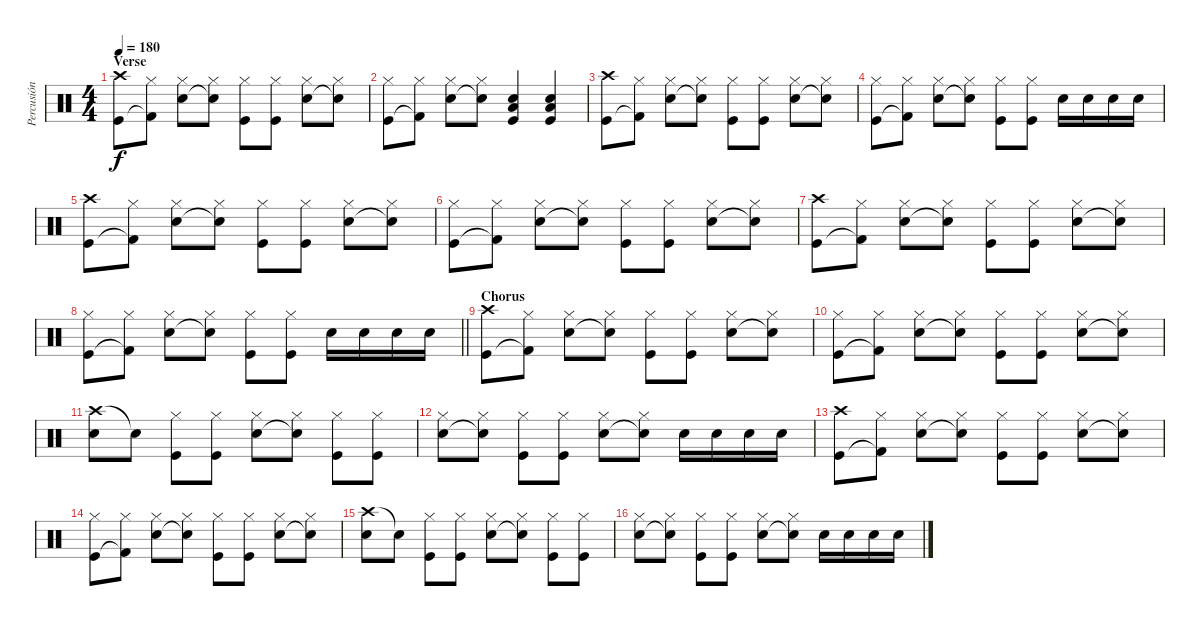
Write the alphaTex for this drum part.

\track ("Percusión" "Percusión") {instrument percussion}
\staff {score}
\articulation defaults
\ts (4 4)
\section ("" "Verse")
\tempo 180
\clef neutral
\ks c
("Crash high (hit)" "Kick (hit)").8{dy f} ("Hi-Hat (closed)" "Kick (hit) 2"{t}).8 ("Hi-Hat (closed)" "Snare (hit) 2").8 ("Hi-Hat (closed)" "Snare (hit)"{t}).8 ("Hi-Hat (closed)" "Kick (hit)").8 ("Hi-Hat (closed)" "Kick (hit)").8 ("Hi-Hat (closed)" "Snare (hit) 2").8 ("Hi-Hat (closed)" "Snare (hit)"{t}).8 |
("Hi-Hat (closed)" "Kick (hit)").8 ("Hi-Hat (closed)" "Kick (hit) 2"{t}).8 ("Hi-Hat (closed)" "Snare (hit) 2").8 ("Hi-Hat (closed)" "Snare (hit)"{t}).8 ("Low Floor Tom (hit)" "Snare (hit) 2" "Kick (hit)").4 ("Low Floor Tom (hit)" "Snare (hit) 2" "Kick (hit)").4 |
("Crash high (hit)" "Kick (hit)").8 ("Hi-Hat (closed)" "Kick (hit) 2"{t}).8 ("Hi-Hat (closed)" "Snare (hit) 2").8 ("Hi-Hat (closed)" "Snare (hit)"{t}).8 ("Hi-Hat (closed)" "Kick (hit)").8 ("Hi-Hat (closed)" "Kick (hit)").8 ("Hi-Hat (closed)" "Snare (hit) 2").8 ("Hi-Hat (closed)" "Snare (hit)"{t}).8 |
("Hi-Hat (closed)" "Kick (hit)").8 ("Hi-Hat (closed)" "Kick (hit) 2"{t}).8 ("Hi-Hat (closed)" "Snare (hit) 2").8 ("Hi-Hat (closed)" "Snare (hit)"{t}).8 ("Hi-Hat (closed)" "Kick (hit)").8 ("Hi-Hat (closed)" "Kick (hit)").8 "Snare (hit) 2".16 "Snare (hit) 2".16 "Snare (hit) 2".16 "Snare (hit) 2".16 |
("Crash high (hit)" "Kick (hit)").8 ("Hi-Hat (closed)" "Kick (hit) 2"{t}).8 ("Hi-Hat (closed)" "Snare (hit) 2").8 ("Hi-Hat (closed)" "Snare (hit)"{t}).8 ("Hi-Hat (closed)" "Kick (hit)").8 ("Hi-Hat (closed)" "Kick (hit)").8 ("Hi-Hat (closed)" "Snare (hit) 2").8 ("Hi-Hat (closed)" "Snare (hit)"{t}).8 |
("Hi-Hat (closed)" "Kick (hit)").8 ("Hi-Hat (closed)" "Kick (hit) 2"{t}).8 ("Hi-Hat (closed)" "Snare (hit) 2").8 ("Hi-Hat (closed)" "Snare (hit)"{t}).8 ("Hi-Hat (closed)" "Kick (hit)").8 ("Hi-Hat (closed)" "Kick (hit)").8 ("Hi-Hat (closed)" "Snare (hit) 2").8 ("Hi-Hat (closed)" "Snare (hit)"{t}).8 |
("Crash high (hit)" "Kick (hit)").8 ("Hi-Hat (closed)" "Kick (hit) 2"{t}).8 ("Hi-Hat (closed)" "Snare (hit) 2").8 ("Hi-Hat (closed)" "Snare (hit)"{t}).8 ("Hi-Hat (closed)" "Kick (hit)").8 ("Hi-Hat (closed)" "Kick (hit)").8 ("Hi-Hat (closed)" "Snare (hit) 2").8 ("Hi-Hat (closed)" "Snare (hit)"{t}).8 |
\barLineRight lightlight
("Hi-Hat (closed)" "Kick (hit)").8 ("Hi-Hat (closed)" "Kick (hit) 2"{t}).8 ("Hi-Hat (closed)" "Snare (hit) 2").8 ("Hi-Hat (closed)" "Snare (hit)"{t}).8 ("Hi-Hat (closed)" "Kick (hit)").8 ("Hi-Hat (closed)" "Kick (hit)").8 "Snare (hit) 2".16 "Snare (hit) 2".16 "Snare (hit) 2".16 "Snare (hit) 2".16 |
\section ("" "Chorus")
("Crash high (hit)" "Kick (hit)").8 ("Hi-Hat (closed)" "Kick (hit) 2"{t}).8 ("Hi-Hat (closed)" "Snare (hit) 2").8 ("Hi-Hat (closed)" "Snare (hit)"{t}).8 ("Hi-Hat (closed)" "Kick (hit)").8 ("Hi-Hat (closed)" "Kick (hit)").8 ("Hi-Hat (closed)" "Snare (hit) 2").8 ("Hi-Hat (closed)" "Snare (hit)"{t}).8 |
("Hi-Hat (closed)" "Kick (hit)").8 ("Hi-Hat (closed)" "Kick (hit) 2"{t}).8 ("Hi-Hat (closed)" "Snare (hit) 2").8 ("Hi-Hat (closed)" "Snare (hit)"{t}).8 ("Hi-Hat (closed)" "Kick (hit)").8 ("Hi-Hat (closed)" "Kick (hit)").8 ("Hi-Hat (closed)" "Snare (hit) 2").8 ("Hi-Hat (closed)" "Snare (hit)"{t}).8 |
("Crash high (hit)" "Snare (hit) 2").8 "Snare (hit)"{t}.8 ("Hi-Hat (closed)" "Kick (hit)").8 ("Hi-Hat (closed)" "Kick (hit)").8 ("Hi-Hat (closed)" "Snare (hit) 2").8 ("Hi-Hat (closed)" "Snare (hit)"{t}).8 ("Hi-Hat (closed)" "Kick (hit)").8 ("Hi-Hat (closed)" "Kick (hit)").8 |
("Hi-Hat (closed)" "Snare (hit) 2").8 ("Hi-Hat (closed)" "Snare (hit)"{t}).8 ("Hi-Hat (closed)" "Kick (hit)").8 ("Hi-Hat (closed)" "Kick (hit)").8 ("Hi-Hat (closed)" "Snare (hit) 2").8 ("Hi-Hat (closed)" "Snare (hit) 2"{t}).8 "Snare (hit) 2".16 "Snare (hit) 2".16 "Snare (hit) 2".16 "Snare (hit) 2".16 |
("Crash high (hit)" "Kick (hit)").8 ("Hi-Hat (closed)" "Kick (hit) 2"{t}).8 ("Hi-Hat (closed)" "Snare (hit) 2").8 ("Hi-Hat (closed)" "Snare (hit)"{t}).8 ("Hi-Hat (closed)" "Kick (hit)").8 ("Hi-Hat (closed)" "Kick (hit)").8 ("Hi-Hat (closed)" "Snare (hit) 2").8 ("Hi-Hat (closed)" "Snare (hit)"{t}).8 |
("Hi-Hat (closed)" "Kick (hit)").8 ("Hi-Hat (closed)" "Kick (hit) 2"{t}).8 ("Hi-Hat (closed)" "Snare (hit) 2").8 ("Hi-Hat (closed)" "Snare (hit)"{t}).8 ("Hi-Hat (closed)" "Kick (hit)").8 ("Hi-Hat (closed)" "Kick (hit)").8 ("Hi-Hat (closed)" "Snare (hit) 2").8 ("Hi-Hat (closed)" "Snare (hit)"{t}).8 |
("Crash high (hit)" "Snare (hit) 2").8 "Snare (hit)"{t}.8 ("Hi-Hat (closed)" "Kick (hit)").8 ("Hi-Hat (closed)" "Kick (hit)").8 ("Hi-Hat (closed)" "Snare (hit) 2").8 ("Hi-Hat (closed)" "Snare (hit)"{t}).8 ("Hi-Hat (closed)" "Kick (hit)").8 ("Hi-Hat (closed)" "Kick (hit)").8 |
("Hi-Hat (closed)" "Snare (hit) 2").8 ("Hi-Hat (closed)" "Snare (hit)"{t}).8 ("Hi-Hat (closed)" "Kick (hit)").8 ("Hi-Hat (closed)" "Kick (hit)").8 ("Hi-Hat (closed)" "Snare (hit) 2").8 ("Hi-Hat (closed)" "Snare (hit) 2"{t}).8 "Snare (hit) 2".16 "Snare (hit) 2".16 "Snare (hit) 2".16 "Snare (hit) 2".16
